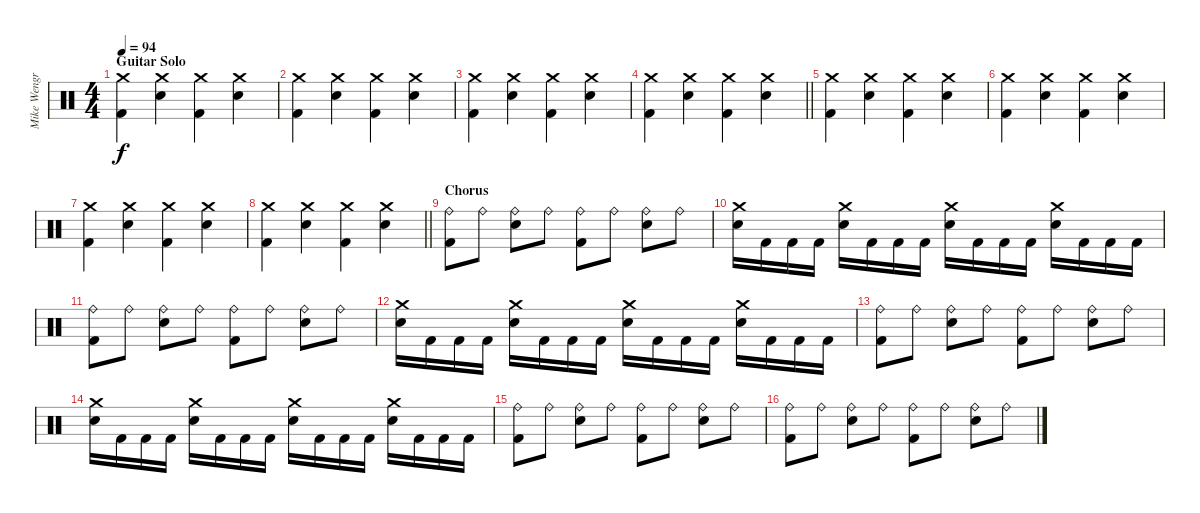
\track ("Mike Wengren" "Mike Wengr") {instrument percussion}
\staff {score}
\articulation defaults
\ts (4 4)
\section ("" "Guitar Solo")
\tempo 94
\clef neutral
\ks c
("Kick (hit) 2" "Crash medium (hit)").4{dy f} ("Electric Snare (hit)" "Crash medium (hit)").4 ("Kick (hit) 2" "Crash medium (hit)").4 ("Electric Snare (hit)" "Crash medium (hit)").4 |
("Kick (hit) 2" "Crash medium (hit)").4 ("Electric Snare (hit)" "Crash medium (hit)").4 ("Kick (hit) 2" "Crash medium (hit)").4 ("Electric Snare (hit)" "Crash medium (hit)").4 |
("Kick (hit) 2" "Crash medium (hit)").4 ("Electric Snare (hit)" "Crash medium (hit)").4 ("Kick (hit) 2" "Crash medium (hit)").4 ("Electric Snare (hit)" "Crash medium (hit)").4 |
\barLineRight lightlight
("Kick (hit) 2" "Crash medium (hit)").4 ("Electric Snare (hit)" "Crash medium (hit)").4 ("Kick (hit) 2" "Crash medium (hit)").4 ("Electric Snare (hit)" "Crash medium (hit)").4 |
("Kick (hit) 2" "Crash medium (hit)").4 ("Electric Snare (hit)" "Crash medium (hit)").4 ("Kick (hit) 2" "Crash medium (hit)").4 ("Electric Snare (hit)" "Crash medium (hit)").4 |
("Kick (hit) 2" "Crash medium (hit)").4 ("Electric Snare (hit)" "Crash medium (hit)").4 ("Kick (hit) 2" "Crash medium (hit)").4 ("Electric Snare (hit)" "Crash medium (hit)").4 |
("Kick (hit) 2" "Crash medium (hit)").4 ("Electric Snare (hit)" "Crash medium (hit)").4 ("Kick (hit) 2" "Crash medium (hit)").4 ("Electric Snare (hit)" "Crash medium (hit)").4 |
\barLineRight lightlight
("Kick (hit) 2" "Crash medium (hit)").4 ("Electric Snare (hit)" "Crash medium (hit)").4 ("Kick (hit) 2" "Crash medium (hit)").4 ("Electric Snare (hit)" "Crash medium (hit)").4 |
\section ("" "Chorus")
("Kick (hit) 2" "Ride (bell)").8 "Ride (bell)".8 ("Electric Snare (hit)" "Ride (bell)").8 "Ride (bell)".8 ("Kick (hit) 2" "Ride (bell)").8 "Ride (bell)".8 ("Electric Snare (hit)" "Ride (bell)").8 "Ride (bell)".8 |
("Electric Snare (hit)" "Crash medium (hit)").16 "Kick (hit) 2".16 "Kick (hit) 2".16 "Kick (hit) 2".16 ("Electric Snare (hit)" "Crash medium (hit)").16 "Kick (hit) 2".16 "Kick (hit) 2".16 "Kick (hit) 2".16 ("Electric Snare (hit)" "Crash medium (hit)").16 "Kick (hit) 2".16 "Kick (hit) 2".16 "Kick (hit) 2".16 ("Electric Snare (hit)" "Crash medium (hit)").16 "Kick (hit) 2".16 "Kick (hit) 2".16 "Kick (hit) 2".16 |
("Kick (hit) 2" "Ride (bell)").8 "Ride (bell)".8 ("Electric Snare (hit)" "Ride (bell)").8 "Ride (bell)".8 ("Kick (hit) 2" "Ride (bell)").8 "Ride (bell)".8 ("Electric Snare (hit)" "Ride (bell)").8 "Ride (bell)".8 |
("Electric Snare (hit)" "Crash medium (hit)").16 "Kick (hit) 2".16 "Kick (hit) 2".16 "Kick (hit) 2".16 ("Electric Snare (hit)" "Crash medium (hit)").16 "Kick (hit) 2".16 "Kick (hit) 2".16 "Kick (hit) 2".16 ("Electric Snare (hit)" "Crash medium (hit)").16 "Kick (hit) 2".16 "Kick (hit) 2".16 "Kick (hit) 2".16 ("Electric Snare (hit)" "Crash medium (hit)").16 "Kick (hit) 2".16 "Kick (hit) 2".16 "Kick (hit) 2".16 |
("Kick (hit) 2" "Ride (bell)").8 "Ride (bell)".8 ("Electric Snare (hit)" "Ride (bell)").8 "Ride (bell)".8 ("Kick (hit) 2" "Ride (bell)").8 "Ride (bell)".8 ("Electric Snare (hit)" "Ride (bell)").8 "Ride (bell)".8 |
("Electric Snare (hit)" "Crash medium (hit)").16 "Kick (hit) 2".16 "Kick (hit) 2".16 "Kick (hit) 2".16 ("Electric Snare (hit)" "Crash medium (hit)").16 "Kick (hit) 2".16 "Kick (hit) 2".16 "Kick (hit) 2".16 ("Electric Snare (hit)" "Crash medium (hit)").16 "Kick (hit) 2".16 "Kick (hit) 2".16 "Kick (hit) 2".16 ("Electric Snare (hit)" "Crash medium (hit)").16 "Kick (hit) 2".16 "Kick (hit) 2".16 "Kick (hit) 2".16 |
("Kick (hit) 2" "Ride (bell)").8 "Ride (bell)".8 ("Electric Snare (hit)" "Ride (bell)").8 "Ride (bell)".8 ("Kick (hit) 2" "Ride (bell)").8 "Ride (bell)".8 ("Electric Snare (hit)" "Ride (bell)").8 "Ride (bell)".8 |
("Kick (hit) 2" "Ride (bell)").8 "Ride (bell)".8 ("Electric Snare (hit)" "Ride (bell)").8 "Ride (bell)".8 ("Kick (hit) 2" "Ride (bell)").8 "Ride (bell)".8 ("Electric Snare (hit)" "Ride (bell)").8 "Ride (bell)".8
